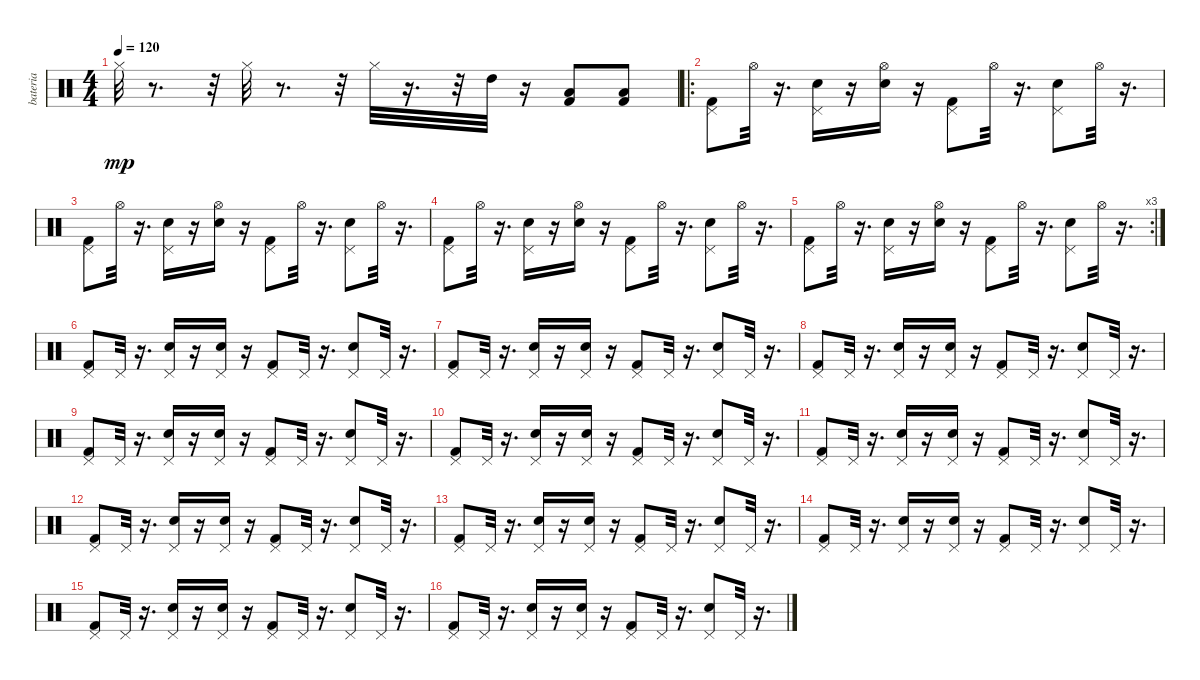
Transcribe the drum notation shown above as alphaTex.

\track ("bateria" "bateria") {instrument percussion}
\staff {score}
\articulation defaults
\ts (4 4)
\tempo 120
\clef neutral
\ks c "Hi-Hat (closed)".32{dy mp}
r.8{d} r.32 "Hi-Hat (closed)".32{volume 15} r.8{d} r.32 "Hi-Hat (closed)".32 r.16{d} r.32 "High Tom (hit)".32 r.16 ("Low Tom (hit)" "Kick (hit) 2").8 ("Low Floor Tom (hit)" "Kick (hit) 2").8 |
\ro
("Kick (hit) 2" "Pedal Hi-Hat (hit)").8 "Hi-Hat (open)".32 r.16{d} ("Snare (hit) 2" "Pedal Hi-Hat (hit)").16 r.16 ("Snare (hit) 2" "Hi-Hat (open)").16 r.16 ("Kick (hit) 2" "Pedal Hi-Hat (hit)").8 "Hi-Hat (open)".32 r.16{d} ("Snare (hit) 2" "Pedal Hi-Hat (hit)").8 "Hi-Hat (open)".32 r.16{d} |
("Kick (hit) 2" "Pedal Hi-Hat (hit)").8 "Hi-Hat (open)".32 r.16{d} ("Snare (hit) 2" "Pedal Hi-Hat (hit)").16 r.16 ("Snare (hit) 2" "Hi-Hat (open)").16 r.16 ("Kick (hit) 2" "Pedal Hi-Hat (hit)").8 "Hi-Hat (open)".32 r.16{d} ("Snare (hit) 2" "Pedal Hi-Hat (hit)").8 "Hi-Hat (open)".32 r.16{d} |
("Kick (hit) 2" "Pedal Hi-Hat (hit)").8 "Hi-Hat (open)".32 r.16{d} ("Snare (hit) 2" "Pedal Hi-Hat (hit)").16 r.16 ("Snare (hit) 2" "Hi-Hat (open)").16 r.16 ("Kick (hit) 2" "Pedal Hi-Hat (hit)").8 "Hi-Hat (open)".32 r.16{d} ("Snare (hit) 2" "Pedal Hi-Hat (hit)").8 "Hi-Hat (open)".32 r.16{d} |
\rc 3
("Kick (hit) 2" "Pedal Hi-Hat (hit)").8 "Hi-Hat (open)".32 r.16{d} ("Snare (hit) 2" "Pedal Hi-Hat (hit)").16 r.16 ("Snare (hit) 2" "Hi-Hat (open)").16 r.16 ("Kick (hit) 2" "Pedal Hi-Hat (hit)").8 "Hi-Hat (open)".32 r.16{d} ("Snare (hit) 2" "Pedal Hi-Hat (hit)").8 "Hi-Hat (open)".32 r.16{d} |
("Kick (hit) 2" "Pedal Hi-Hat (hit)").8 "Pedal Hi-Hat (hit)".32 r.16{d} ("Snare (hit) 2" "Pedal Hi-Hat (hit)").16 r.16 ("Snare (hit) 2" "Pedal Hi-Hat (hit)").16 r.16 ("Kick (hit) 2" "Pedal Hi-Hat (hit)").8 "Pedal Hi-Hat (hit)".32 r.16{d} ("Snare (hit) 2" "Pedal Hi-Hat (hit)").8 "Pedal Hi-Hat (hit)".32 r.16{d} |
("Kick (hit) 2" "Pedal Hi-Hat (hit)").8 "Pedal Hi-Hat (hit)".32 r.16{d} ("Snare (hit) 2" "Pedal Hi-Hat (hit)").16 r.16 ("Snare (hit) 2" "Pedal Hi-Hat (hit)").16 r.16 ("Kick (hit) 2" "Pedal Hi-Hat (hit)").8 "Pedal Hi-Hat (hit)".32 r.16{d} ("Snare (hit) 2" "Pedal Hi-Hat (hit)").8 "Pedal Hi-Hat (hit)".32 r.16{d} |
("Kick (hit) 2" "Pedal Hi-Hat (hit)").8 "Pedal Hi-Hat (hit)".32 r.16{d} ("Snare (hit) 2" "Pedal Hi-Hat (hit)").16 r.16 ("Snare (hit) 2" "Pedal Hi-Hat (hit)").16 r.16 ("Kick (hit) 2" "Pedal Hi-Hat (hit)").8 "Pedal Hi-Hat (hit)".32 r.16{d} ("Snare (hit) 2" "Pedal Hi-Hat (hit)").8 "Pedal Hi-Hat (hit)".32 r.16{d} |
("Kick (hit) 2" "Pedal Hi-Hat (hit)").8 "Pedal Hi-Hat (hit)".32 r.16{d} ("Snare (hit) 2" "Pedal Hi-Hat (hit)").16 r.16 ("Snare (hit) 2" "Pedal Hi-Hat (hit)").16 r.16 ("Kick (hit) 2" "Pedal Hi-Hat (hit)").8 "Pedal Hi-Hat (hit)".32 r.16{d} ("Snare (hit) 2" "Pedal Hi-Hat (hit)").8 "Pedal Hi-Hat (hit)".32 r.16{d} |
("Kick (hit) 2" "Pedal Hi-Hat (hit)").8 "Pedal Hi-Hat (hit)".32 r.16{d} ("Snare (hit) 2" "Pedal Hi-Hat (hit)").16 r.16 ("Snare (hit) 2" "Pedal Hi-Hat (hit)").16 r.16 ("Kick (hit) 2" "Pedal Hi-Hat (hit)").8 "Pedal Hi-Hat (hit)".32 r.16{d} ("Snare (hit) 2" "Pedal Hi-Hat (hit)").8 "Pedal Hi-Hat (hit)".32 r.16{d} |
("Kick (hit) 2" "Pedal Hi-Hat (hit)").8 "Pedal Hi-Hat (hit)".32 r.16{d} ("Snare (hit) 2" "Pedal Hi-Hat (hit)").16 r.16 ("Snare (hit) 2" "Pedal Hi-Hat (hit)").16 r.16 ("Kick (hit) 2" "Pedal Hi-Hat (hit)").8 "Pedal Hi-Hat (hit)".32 r.16{d} ("Snare (hit) 2" "Pedal Hi-Hat (hit)").8 "Pedal Hi-Hat (hit)".32 r.16{d} |
("Kick (hit) 2" "Pedal Hi-Hat (hit)").8 "Pedal Hi-Hat (hit)".32 r.16{d} ("Snare (hit) 2" "Pedal Hi-Hat (hit)").16 r.16 ("Snare (hit) 2" "Pedal Hi-Hat (hit)").16 r.16 ("Kick (hit) 2" "Pedal Hi-Hat (hit)").8 "Pedal Hi-Hat (hit)".32 r.16{d} ("Snare (hit) 2" "Pedal Hi-Hat (hit)").8 "Pedal Hi-Hat (hit)".32 r.16{d} |
("Kick (hit) 2" "Pedal Hi-Hat (hit)").8 "Pedal Hi-Hat (hit)".32 r.16{d} ("Snare (hit) 2" "Pedal Hi-Hat (hit)").16 r.16 ("Snare (hit) 2" "Pedal Hi-Hat (hit)").16 r.16 ("Kick (hit) 2" "Pedal Hi-Hat (hit)").8 "Pedal Hi-Hat (hit)".32 r.16{d} ("Snare (hit) 2" "Pedal Hi-Hat (hit)").8 "Pedal Hi-Hat (hit)".32 r.16{d} |
("Kick (hit) 2" "Pedal Hi-Hat (hit)").8 "Pedal Hi-Hat (hit)".32 r.16{d} ("Snare (hit) 2" "Pedal Hi-Hat (hit)").16 r.16 ("Snare (hit) 2" "Pedal Hi-Hat (hit)").16 r.16 ("Kick (hit) 2" "Pedal Hi-Hat (hit)").8 "Pedal Hi-Hat (hit)".32 r.16{d} ("Snare (hit) 2" "Pedal Hi-Hat (hit)").8 "Pedal Hi-Hat (hit)".32 r.16{d} |
("Kick (hit) 2" "Pedal Hi-Hat (hit)").8 "Pedal Hi-Hat (hit)".32 r.16{d} ("Snare (hit) 2" "Pedal Hi-Hat (hit)").16 r.16 ("Snare (hit) 2" "Pedal Hi-Hat (hit)").16 r.16 ("Kick (hit) 2" "Pedal Hi-Hat (hit)").8 "Pedal Hi-Hat (hit)".32 r.16{d} ("Snare (hit) 2" "Pedal Hi-Hat (hit)").8 "Pedal Hi-Hat (hit)".32 r.16{d} |
("Kick (hit) 2" "Pedal Hi-Hat (hit)").8 "Pedal Hi-Hat (hit)".32 r.16{d} ("Snare (hit) 2" "Pedal Hi-Hat (hit)").16 r.16 ("Snare (hit) 2" "Pedal Hi-Hat (hit)").16 r.16 ("Kick (hit) 2" "Pedal Hi-Hat (hit)").8 "Pedal Hi-Hat (hit)".32 r.16{d} ("Snare (hit) 2" "Pedal Hi-Hat (hit)").8 "Pedal Hi-Hat (hit)".32 r.16{d}
